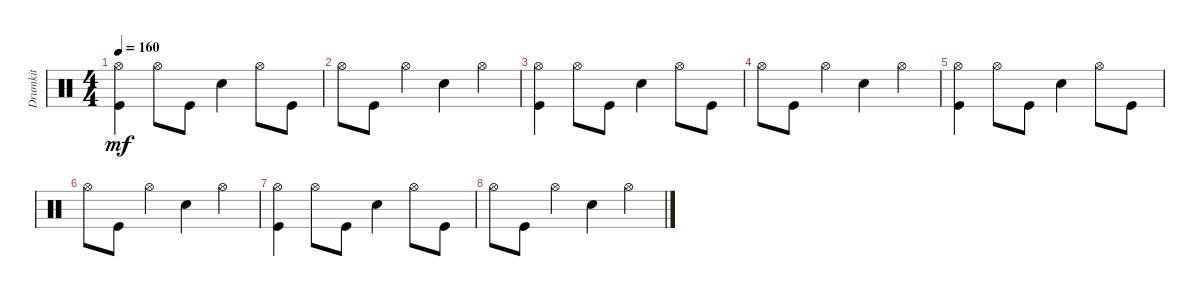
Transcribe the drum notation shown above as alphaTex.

\track ("Drumkit" "Drumkit") {instrument percussion}
\staff {score}
\articulation defaults
\ts (4 4)
\tempo 160
\clef neutral
\ks c
("Kick (hit)" "Hi-Hat (open)").4{dy mf} "Hi-Hat (open)".8 "Kick (hit)".8 "Snare (hit) 2".4 "Hi-Hat (open)".8 "Kick (hit)".8 |
"Hi-Hat (open)".8 "Kick (hit)".8 "Hi-Hat (open)".4 "Snare (hit) 2".4 "Hi-Hat (open)".4 |
("Kick (hit)" "Hi-Hat (open)").4 "Hi-Hat (open)".8 "Kick (hit)".8 "Snare (hit) 2".4 "Hi-Hat (open)".8 "Kick (hit)".8 |
"Hi-Hat (open)".8 "Kick (hit)".8 "Hi-Hat (open)".4 "Snare (hit) 2".4 "Hi-Hat (open)".4 |
("Kick (hit)" "Hi-Hat (open)").4 "Hi-Hat (open)".8 "Kick (hit)".8 "Snare (hit) 2".4 "Hi-Hat (open)".8 "Kick (hit)".8 |
"Hi-Hat (open)".8 "Kick (hit)".8 "Hi-Hat (open)".4 "Snare (hit) 2".4 "Hi-Hat (open)".4 |
("Kick (hit)" "Hi-Hat (open)").4 "Hi-Hat (open)".8 "Kick (hit)".8 "Snare (hit) 2".4 "Hi-Hat (open)".8 "Kick (hit)".8 |
"Hi-Hat (open)".8 "Kick (hit)".8 "Hi-Hat (open)".4 "Snare (hit) 2".4 "Hi-Hat (open)".4
